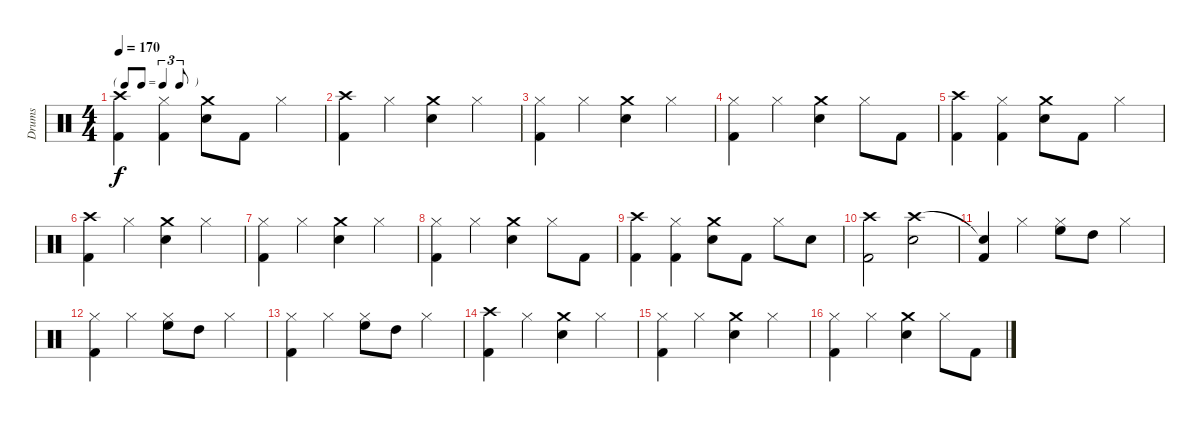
\track ("Drums" "Drums") {instrument percussion}
\staff {score}
\articulation defaults
\ts (4 4)
\tf triplet8th
\tempo 170
\clef neutral
\ks c
("Crash high (hit)" "Kick (hit) 2").4{dy f} ("Hi-Hat (closed)" "Kick (hit) 2").4 ("Crash medium (hit)" "Snare (hit) 2").8 "Kick (hit) 2".8 "Hi-Hat (closed)".4 |
("Crash high (hit)" "Kick (hit) 2").4 "Hi-Hat (closed)".4 ("Crash medium (hit)" "Snare (hit) 2").4 "Hi-Hat (closed)".4 |
("Hi-Hat (closed)" "Kick (hit) 2").4 "Hi-Hat (closed)".4 ("Crash medium (hit)" "Snare (hit) 2").4 "Hi-Hat (closed)".4 |
("Hi-Hat (closed)" "Kick (hit) 2").4 "Hi-Hat (closed)".4 ("Crash medium (hit)" "Snare (hit) 2").4 "Hi-Hat (closed)".8 "Kick (hit) 2".8 |
("Crash high (hit)" "Kick (hit) 2").4 ("Hi-Hat (closed)" "Kick (hit) 2").4 ("Crash medium (hit)" "Snare (hit) 2").8 "Kick (hit) 2".8 "Hi-Hat (closed)".4 |
("Crash high (hit)" "Kick (hit) 2").4 "Hi-Hat (closed)".4 ("Crash medium (hit)" "Snare (hit) 2").4 "Hi-Hat (closed)".4 |
("Hi-Hat (closed)" "Kick (hit) 2").4 "Hi-Hat (closed)".4 ("Crash medium (hit)" "Snare (hit) 2").4 "Hi-Hat (closed)".4 |
("Hi-Hat (closed)" "Kick (hit) 2").4 "Hi-Hat (closed)".4 ("Crash medium (hit)" "Snare (hit) 2").4 "Hi-Hat (closed)".8 "Kick (hit) 2".8 |
("Crash high (hit)" "Kick (hit) 2").4 ("Hi-Hat (closed)" "Kick (hit) 2").4 ("Crash medium (hit)" "Snare (hit) 2").8 "Kick (hit) 2".8 "Hi-Hat (closed)".8 "Snare (hit) 2".8 |
("Crash high (hit)" "Kick (hit) 2").2 ("Crash high (hit)" "Snare (hit) 2").2 |
("Snare (hit)"{t} "Kick (hit) 2").4 "Hi-Hat (closed)".4 ("Hi-Hat (closed)" "High Floor Tom (hit)").8 "High Tom (hit)".8 "Hi-Hat (closed)".4 |
("Hi-Hat (closed)" "Kick (hit) 2").4 "Hi-Hat (closed)".4 ("Hi-Hat (closed)" "High Floor Tom (hit)").8 "High Tom (hit)".8 "Hi-Hat (closed)".4 |
("Hi-Hat (closed)" "Kick (hit) 2").4 "Hi-Hat (closed)".4 ("Hi-Hat (closed)" "High Floor Tom (hit)").8 "High Tom (hit)".8 "Hi-Hat (closed)".4 |
("Crash high (hit)" "Kick (hit) 2").4 "Hi-Hat (closed)".4 ("Crash medium (hit)" "Snare (hit) 2").4 "Hi-Hat (closed)".4 |
("Hi-Hat (closed)" "Kick (hit) 2").4 "Hi-Hat (closed)".4 ("Crash medium (hit)" "Snare (hit) 2").4 "Hi-Hat (closed)".4 |
("Hi-Hat (closed)" "Kick (hit) 2").4 "Hi-Hat (closed)".4 ("Crash medium (hit)" "Snare (hit) 2").4 "Hi-Hat (closed)".8 "Kick (hit) 2".8
